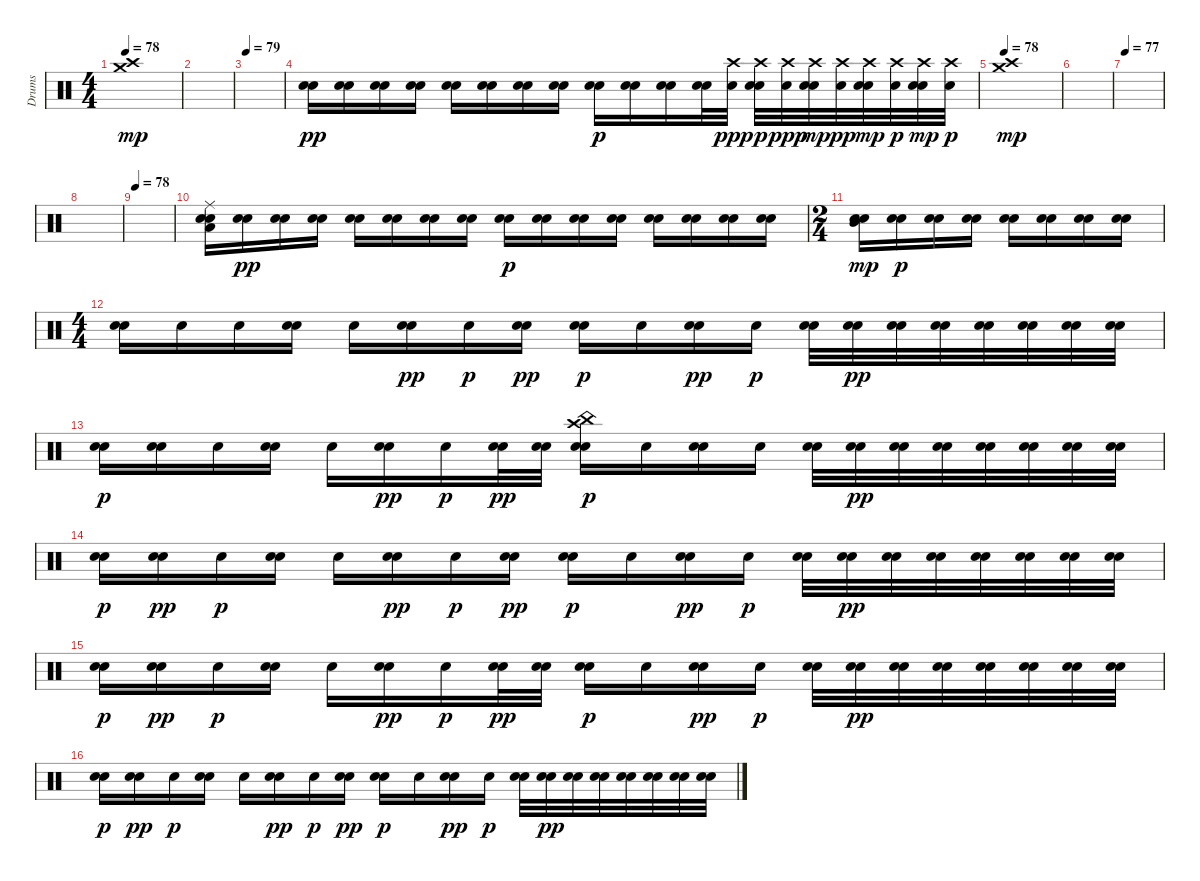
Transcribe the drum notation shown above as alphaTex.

\track ("Drums" "Drums") {instrument percussion}
\staff {score}
\articulation defaults
\ts (4 4)
\tempo 78
\clef neutral
\ks c
("Crash medium (hit)" "Crash high (hit)").1{dy mp} |
|
\tempo 79
|
("Snare (hit)" "Electric Snare (hit)").16{dy pp} ("Snare (hit)" "Electric Snare (hit)").16 ("Snare (hit)" "Electric Snare (hit)").16 ("Snare (hit)" "Electric Snare (hit)").16 ("Snare (hit)" "Electric Snare (hit)").16 ("Snare (hit)" "Electric Snare (hit)").16 ("Snare (hit)" "Electric Snare (hit)").16 ("Snare (hit)" "Electric Snare (hit)").16 ("Snare (hit)" "Electric Snare (hit)").16{dy p} ("Snare (hit)" "Electric Snare (hit)").16 ("Snare (hit)" "Electric Snare (hit)").16 ("Snare (hit)" "Electric Snare (hit)").32 ("Snare (hit)" "Crash high (hit)").32{dy ppp} ("Snare (hit)" "Crash high (hit)" "Electric Snare (hit)").32{dy p} ("Snare (hit)" "Crash high (hit)").32{dy ppp} ("Snare (hit)" "Crash high (hit)" "Electric Snare (hit)").32{dy mp} ("Snare (hit)" "Crash high (hit)").32{dy pp} ("Snare (hit)" "Crash high (hit)" "Electric Snare (hit)").32{dy mp} ("Snare (hit)" "Crash high (hit)").32{dy p} ("Snare (hit)" "Crash high (hit)" "Electric Snare (hit)").32{dy mp} ("Snare (hit)" "Crash high (hit)").32{dy p} |
\tempo 78
("Crash medium (hit)" "Crash high (hit)").1{dy mp} |
|
\tempo 77
|
|
\tempo 78
|
("Snare (hit)" "Ride (middle)" "Low Tom (hit)" "Electric Snare (hit)").16 ("Snare (hit)" "Electric Snare (hit)").16{dy pp} ("Snare (hit)" "Electric Snare (hit)").16 ("Snare (hit)" "Electric Snare (hit)").16 ("Snare (hit)" "Electric Snare (hit)").16 ("Snare (hit)" "Electric Snare (hit)").16 ("Snare (hit)" "Electric Snare (hit)").16 ("Snare (hit)" "Electric Snare (hit)").16 ("Snare (hit)" "Electric Snare (hit)").16{dy p} ("Snare (hit)" "Electric Snare (hit)").16 ("Snare (hit)" "Electric Snare (hit)").16 ("Snare (hit)" "Electric Snare (hit)").16 ("Snare (hit)" "Electric Snare (hit)").16 ("Snare (hit)" "Electric Snare (hit)").16 ("Snare (hit)" "Electric Snare (hit)").16 ("Snare (hit)" "Electric Snare (hit)").16 |
\ts (2 4)
("Snare (hit)" "Electric Snare (hit)" "Mid Tom (hit)").16{dy mp} ("Snare (hit)" "Electric Snare (hit)").16{dy p} ("Snare (hit)" "Electric Snare (hit)").16 ("Snare (hit)" "Electric Snare (hit)").16 ("Snare (hit)" "Electric Snare (hit)").16 ("Snare (hit)" "Electric Snare (hit)").16 ("Snare (hit)" "Electric Snare (hit)").16 ("Snare (hit)" "Electric Snare (hit)").16 |
\ts (4 4)
("Snare (hit)" "Electric Snare (hit)").16 "Snare (hit)".16 "Snare (hit)".16 ("Snare (hit)" "Electric Snare (hit)").16 "Snare (hit)".16 ("Snare (hit)" "Electric Snare (hit)").16{dy pp} "Snare (hit)".16{dy p} ("Snare (hit)" "Electric Snare (hit)").16{dy pp} ("Snare (hit)" "Electric Snare (hit)").16{dy p} "Snare (hit)".16 ("Snare (hit)" "Electric Snare (hit)").16{dy pp} "Snare (hit)".16{dy p} ("Snare (hit)" "Electric Snare (hit)").32 ("Snare (hit)" "Electric Snare (hit)").32{dy pp} ("Snare (hit)" "Electric Snare (hit)").32 ("Snare (hit)" "Electric Snare (hit)").32 ("Snare (hit)" "Electric Snare (hit)").32 ("Snare (hit)" "Electric Snare (hit)").32 ("Snare (hit)" "Electric Snare (hit)").32 ("Snare (hit)" "Electric Snare (hit)").32 |
("Snare (hit)" "Electric Snare (hit)").16{dy p} ("Snare (hit)" "Electric Snare (hit)").16 "Snare (hit)".16 ("Snare (hit)" "Electric Snare (hit)").16 "Snare (hit)".16 ("Snare (hit)" "Electric Snare (hit)").16{dy pp} "Snare (hit)".16{dy p} ("Snare (hit)" "Electric Snare (hit)").32{dy pp} ("Snare (hit)" "Electric Snare (hit)").32 ("Snare (hit)" "China (hit)" "Crash high (hit)" "Electric Snare (hit)").16{dy p} "Snare (hit)".16 ("Snare (hit)" "Electric Snare (hit)").16 "Snare (hit)".16 ("Snare (hit)" "Electric Snare (hit)").32 ("Snare (hit)" "Electric Snare (hit)").32{dy pp} ("Snare (hit)" "Electric Snare (hit)").32 ("Snare (hit)" "Electric Snare (hit)").32 ("Snare (hit)" "Electric Snare (hit)").32 ("Snare (hit)" "Electric Snare (hit)").32 ("Snare (hit)" "Electric Snare (hit)").32 ("Snare (hit)" "Electric Snare (hit)").32 |
("Snare (hit)" "Electric Snare (hit)").16{dy p} ("Snare (hit)" "Electric Snare (hit)").16{dy pp} "Snare (hit)".16{dy p} ("Snare (hit)" "Electric Snare (hit)").16 "Snare (hit)".16 ("Snare (hit)" "Electric Snare (hit)").16{dy pp} "Snare (hit)".16{dy p} ("Snare (hit)" "Electric Snare (hit)").16{dy pp} ("Snare (hit)" "Electric Snare (hit)").16{dy p} "Snare (hit)".16 ("Snare (hit)" "Electric Snare (hit)").16{dy pp} "Snare (hit)".16{dy p} ("Snare (hit)" "Electric Snare (hit)").32 ("Snare (hit)" "Electric Snare (hit)").32{dy pp} ("Snare (hit)" "Electric Snare (hit)").32 ("Snare (hit)" "Electric Snare (hit)").32 ("Snare (hit)" "Electric Snare (hit)").32 ("Snare (hit)" "Electric Snare (hit)").32 ("Snare (hit)" "Electric Snare (hit)").32 ("Snare (hit)" "Electric Snare (hit)").32 |
("Snare (hit)" "Electric Snare (hit)").16{dy p} ("Snare (hit)" "Electric Snare (hit)").16{dy pp} "Snare (hit)".16{dy p} ("Snare (hit)" "Electric Snare (hit)").16 "Snare (hit)".16 ("Snare (hit)" "Electric Snare (hit)").16{dy pp} "Snare (hit)".16{dy p} ("Snare (hit)" "Electric Snare (hit)").32{dy pp} ("Snare (hit)" "Electric Snare (hit)").32 ("Snare (hit)" "Electric Snare (hit)").16{dy p} "Snare (hit)".16 ("Snare (hit)" "Electric Snare (hit)").16{dy pp} "Snare (hit)".16{dy p} ("Snare (hit)" "Electric Snare (hit)").32 ("Snare (hit)" "Electric Snare (hit)").32{dy pp} ("Snare (hit)" "Electric Snare (hit)").32 ("Snare (hit)" "Electric Snare (hit)").32 ("Snare (hit)" "Electric Snare (hit)").32 ("Snare (hit)" "Electric Snare (hit)").32 ("Snare (hit)" "Electric Snare (hit)").32 ("Snare (hit)" "Electric Snare (hit)").32 |
("Snare (hit)" "Electric Snare (hit)").16{dy p} ("Snare (hit)" "Electric Snare (hit)").16{dy pp} "Snare (hit)".16{dy p} ("Snare (hit)" "Electric Snare (hit)").16 "Snare (hit)".16 ("Snare (hit)" "Electric Snare (hit)").16{dy pp} "Snare (hit)".16{dy p} ("Snare (hit)" "Electric Snare (hit)").16{dy pp} ("Snare (hit)" "Electric Snare (hit)").16{dy p} "Snare (hit)".16 ("Snare (hit)" "Electric Snare (hit)").16{dy pp} "Snare (hit)".16{dy p} ("Snare (hit)" "Electric Snare (hit)").32 ("Snare (hit)" "Electric Snare (hit)").32{dy pp} ("Snare (hit)" "Electric Snare (hit)").32 ("Snare (hit)" "Electric Snare (hit)").32 ("Snare (hit)" "Electric Snare (hit)").32 ("Snare (hit)" "Electric Snare (hit)").32 ("Snare (hit)" "Electric Snare (hit)").32 ("Snare (hit)" "Electric Snare (hit)").32
